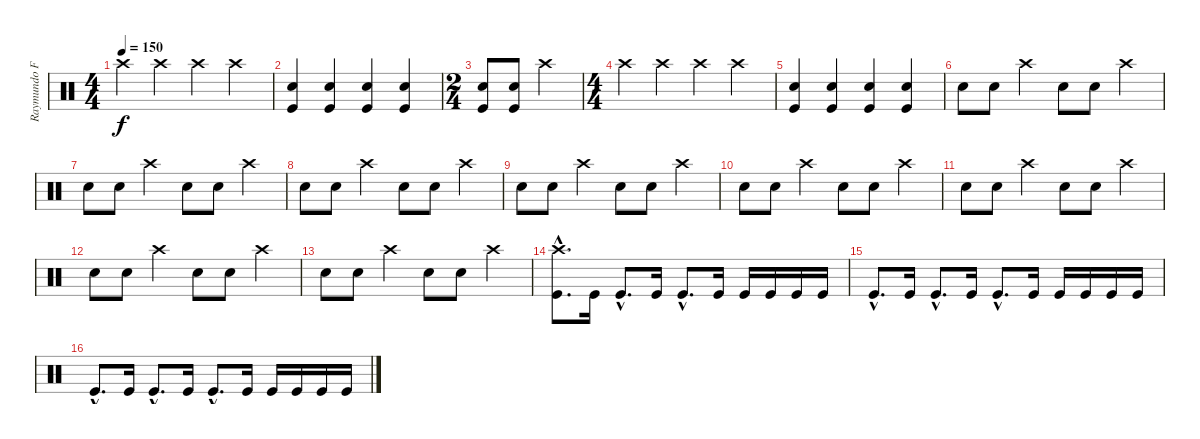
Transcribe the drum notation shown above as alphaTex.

\track ("Raymundo Fajardo" "Raymundo F") {instrument percussion}
\staff {score}
\articulation defaults
\ts (4 4)
\tempo 150
\clef neutral
\ks c "Crash high (hit)".4{dy f} "Crash high (hit)".4 "Crash high (hit)".4 "Crash high (hit)".4
|
("Snare (hit) 2" "Kick (hit)").4 ("Snare (hit) 2" "Kick (hit)").4 ("Snare (hit) 2" "Kick (hit)").4 ("Snare (hit) 2" "Kick (hit)").4 |
\ts (2 4)
("Snare (hit) 2" "Kick (hit)").8 ("Snare (hit) 2" "Kick (hit)").8 "Crash high (hit)".4 |
\ts (4 4)
"Crash high (hit)".4 "Crash high (hit)".4 "Crash high (hit)".4 "Crash high (hit)".4 |
("Snare (hit) 2" "Kick (hit)").4 ("Snare (hit) 2" "Kick (hit)").4 ("Snare (hit) 2" "Kick (hit)").4 ("Snare (hit) 2" "Kick (hit)").4 |
"Electric Snare (hit)".8 "Electric Snare (hit)".8 "Crash high (hit)".4 "Electric Snare (hit)".8 "Electric Snare (hit)".8 "Crash high (hit)".4 |
"Electric Snare (hit)".8 "Electric Snare (hit)".8 "Crash high (hit)".4 "Electric Snare (hit)".8 "Electric Snare (hit)".8 "Crash high (hit)".4 |
"Electric Snare (hit)".8 "Electric Snare (hit)".8 "Crash high (hit)".4 "Electric Snare (hit)".8 "Electric Snare (hit)".8 "Crash high (hit)".4 |
"Electric Snare (hit)".8 "Electric Snare (hit)".8 "Crash high (hit)".4 "Electric Snare (hit)".8 "Electric Snare (hit)".8 "Crash high (hit)".4 |
"Electric Snare (hit)".8 "Electric Snare (hit)".8 "Crash high (hit)".4 "Electric Snare (hit)".8 "Electric Snare (hit)".8 "Crash high (hit)".4 |
"Electric Snare (hit)".8 "Electric Snare (hit)".8 "Crash high (hit)".4 "Electric Snare (hit)".8 "Electric Snare (hit)".8 "Crash high (hit)".4 |
"Electric Snare (hit)".8 "Electric Snare (hit)".8 "Crash high (hit)".4 "Electric Snare (hit)".8 "Electric Snare (hit)".8 "Crash high (hit)".4 |
"Electric Snare (hit)".8 "Electric Snare (hit)".8 "Crash high (hit)".4 "Electric Snare (hit)".8 "Electric Snare (hit)".8 "Crash high (hit)".4 |
("Crash high (hit)"{hac} "Kick (hit)"{hac}).8{d} "Kick (hit)".16 "Kick (hit)"{hac}.8{d} "Kick (hit)".16 "Kick (hit)"{hac}.8{d} "Kick (hit)".16 "Kick (hit)".16 "Kick (hit)".16 "Kick (hit)".16 "Kick (hit)".16 |
"Kick (hit)"{hac}.8{d} "Kick (hit)".16 "Kick (hit)"{hac}.8{d} "Kick (hit)".16 "Kick (hit)"{hac}.8{d} "Kick (hit)".16 "Kick (hit)".16 "Kick (hit)".16 "Kick (hit)".16 "Kick (hit)".16 |
"Kick (hit)"{hac}.8{d} "Kick (hit)".16 "Kick (hit)"{hac}.8{d} "Kick (hit)".16 "Kick (hit)"{hac}.8{d} "Kick (hit)".16 "Kick (hit)".16 "Kick (hit)".16 "Kick (hit)".16 "Kick (hit)".16
